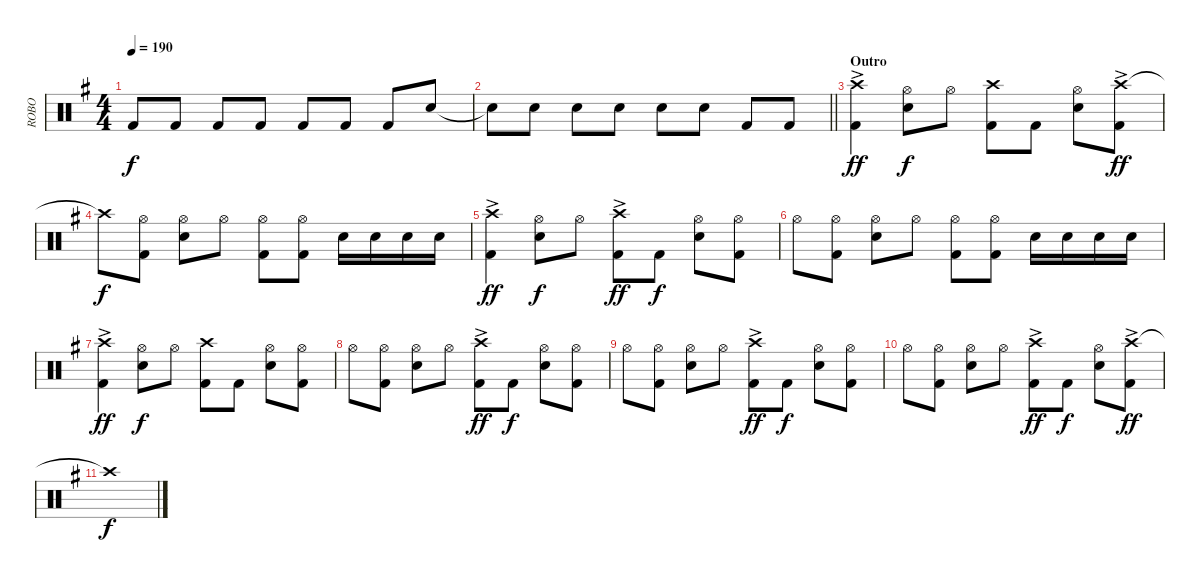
\track ("ROBO" "ROBO") {instrument percussion}
\staff {score}
\articulation defaults
\ts (4 4)
\tempo 190
\clef neutral
\ks eminor "Kick (hit) 2"{t}.8{dy f} "Kick (hit) 2".8 "Kick (hit) 2".8 "Kick (hit) 2".8 "Kick (hit) 2".8 "Kick (hit) 2".8 "Kick (hit) 2".8 "Snare (hit) 2".8
|
\barLineRight lightlight "Snare (hit) 2"{t}.8 "Snare (hit) 2".8 "Snare (hit) 2".8 "Snare (hit) 2".8 "Snare (hit) 2".8 "Snare (hit) 2".8 "Kick (hit) 2".8 "Kick (hit) 2".8
|
\section ("" "Outro")
("Crash high (hit)"{ac} "Kick (hit) 2").4{dy ff} ("Hi-Hat (open)" "Snare (hit) 2").8{dy f} "Hi-Hat (open)".8 ("Crash high (hit)" "Kick (hit) 2").8 "Kick (hit) 2".8 ("Hi-Hat (open)" "Snare (hit) 2").8 ("Crash high (hit)"{ac} "Kick (hit) 2").8{dy ff} |
"Crash high (hit)"{t}.8{dy f} ("Hi-Hat (open)" "Kick (hit) 2").8 ("Hi-Hat (open)" "Snare (hit) 2").8 "Hi-Hat (open)".8 ("Hi-Hat (open)" "Kick (hit) 2").8 ("Hi-Hat (open)" "Kick (hit) 2").8 "Snare (hit) 2".16 "Snare (hit) 2".16 "Snare (hit) 2".16 "Snare (hit) 2".16 |
("Crash high (hit)"{ac} "Kick (hit) 2").4{dy ff} ("Hi-Hat (open)" "Snare (hit) 2").8{dy f} "Hi-Hat (open)".8 ("Crash high (hit)"{ac} "Kick (hit) 2").8{dy ff} "Kick (hit) 2".8{dy f} ("Hi-Hat (open)" "Snare (hit) 2").8 ("Hi-Hat (open)" "Kick (hit) 2").8 |
"Hi-Hat (open)".8 ("Hi-Hat (open)" "Kick (hit) 2").8 ("Hi-Hat (open)" "Snare (hit) 2").8 "Hi-Hat (open)".8 ("Hi-Hat (open)" "Kick (hit) 2").8 ("Hi-Hat (open)" "Kick (hit) 2").8 "Snare (hit) 2".16 "Snare (hit) 2".16 "Snare (hit) 2".16 "Snare (hit) 2".16 |
("Crash high (hit)"{ac} "Kick (hit) 2").4{dy ff} ("Hi-Hat (open)" "Snare (hit) 2").8{dy f} "Hi-Hat (open)".8 ("Crash high (hit)" "Kick (hit) 2").8 "Kick (hit) 2".8 ("Hi-Hat (open)" "Snare (hit) 2").8 ("Hi-Hat (open)" "Kick (hit) 2").8 |
"Hi-Hat (open)".8 ("Hi-Hat (open)" "Kick (hit) 2").8 ("Hi-Hat (open)" "Snare (hit) 2").8 "Hi-Hat (open)".8 ("Crash high (hit)"{ac} "Kick (hit) 2").8{dy ff} "Kick (hit) 2".8{dy f} ("Hi-Hat (open)" "Snare (hit) 2").8 ("Hi-Hat (open)" "Kick (hit) 2").8 |
"Hi-Hat (open)".8 ("Hi-Hat (open)" "Kick (hit) 2").8 ("Hi-Hat (open)" "Snare (hit) 2").8 "Hi-Hat (open)".8 ("Crash high (hit)"{ac} "Kick (hit) 2").8{dy ff} "Kick (hit) 2".8{dy f} ("Hi-Hat (open)" "Snare (hit) 2").8 ("Hi-Hat (open)" "Kick (hit) 2").8 |
"Hi-Hat (open)".8 ("Hi-Hat (open)" "Kick (hit) 2").8 ("Hi-Hat (open)" "Snare (hit) 2").8 "Hi-Hat (open)".8 ("Crash high (hit)"{ac} "Kick (hit) 2").8{dy ff} "Kick (hit) 2".8{dy f} ("Hi-Hat (open)" "Snare (hit) 2").8 ("Crash high (hit)"{ac} "Kick (hit) 2").8{dy ff} |
"Crash high (hit)"{t}.1{dy f}
